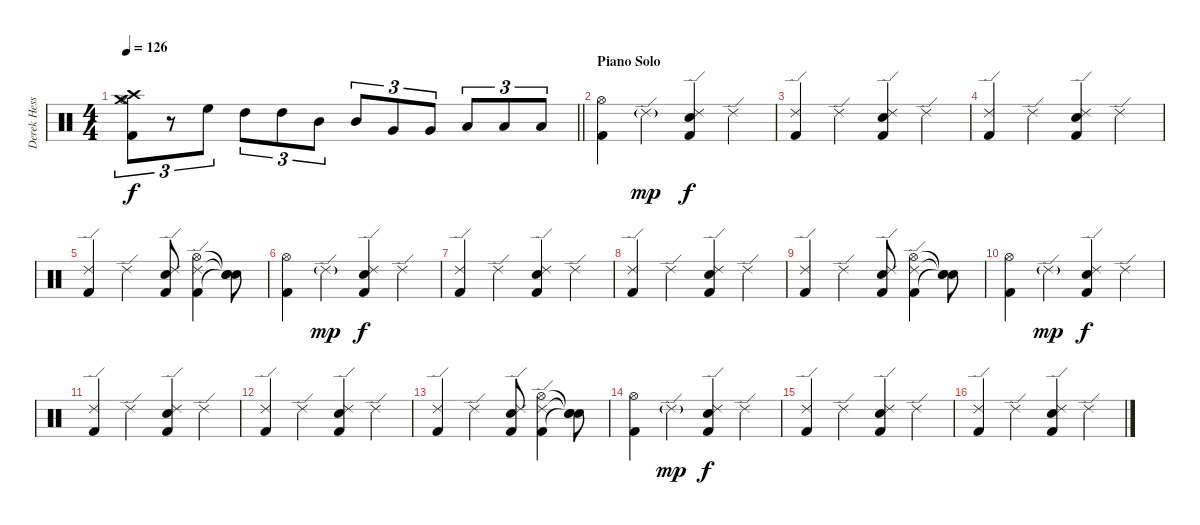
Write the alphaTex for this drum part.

\track ("Derek Hess (Drums and Percussion)" "Derek Hess") {instrument percussion}
\staff {score}
\articulation defaults
\ts (4 4)
\tempo 126
\clef neutral
\barLineRight lightlight
\ks c
("Crash medium (hit)" "Crash high (hit)" "Hi-Hat (open)" "Kick (hit) 2").8{tu (3 2) dy f} r.8{tu (3 2)} "High Floor Tom (hit)".8{tu (3 2)} "High Tom (hit)".8{tu (3 2)} "High Tom (hit)".8{tu (3 2)} "Mid Tom (hit)".8{tu (3 2)} "Mid Tom (hit)".8{tu (3 2)} "Very Low Tom (hit)".8{tu (3 2)} "Very Low Tom (hit)".8{tu (3 2)} "Low Floor Tom (hit)".8{tu (3 2)} "Low Floor Tom (hit)".8{tu (3 2)} "Low Floor Tom (hit)".8{tu (3 2)} |
\section ("" "Piano Solo")
("Hi-Hat (open)" "Kick (hit) 2").4 "Ride (edge) 2"{g}.4{dy mp} ("Ride (edge) 2" "Electric Snare (hit)" "Kick (hit) 2").4{dy f} "Ride (edge) 2".4 |
("Ride (edge) 2" "Kick (hit) 2").4 "Ride (edge) 2".4 ("Ride (edge) 2" "Electric Snare (hit)" "Kick (hit) 2").4 "Ride (edge) 2".4 |
("Ride (edge) 2" "Kick (hit) 2").4 "Ride (edge) 2".4 ("Ride (edge) 2" "Electric Snare (hit)" "Kick (hit) 2").4 "Ride (edge) 2".4 |
("Ride (edge) 2" "Kick (hit) 2").4 "Ride (edge) 2".4 ("Ride (edge) 2" "Electric Snare (hit)" "Kick (hit) 2").8 ("Ride (edge) 2" "Hi-Hat (open)" "Kick (hit) 2").4 ("Snare (hit)"{t} "Snare (hit)"{t} "Snare (hit)"{t}).8 |
("Hi-Hat (open)" "Kick (hit) 2").4 "Ride (edge) 2"{g}.4{dy mp} ("Ride (edge) 2" "Electric Snare (hit)" "Kick (hit) 2").4{dy f} "Ride (edge) 2".4 |
("Ride (edge) 2" "Kick (hit) 2").4 "Ride (edge) 2".4 ("Ride (edge) 2" "Electric Snare (hit)" "Kick (hit) 2").4 "Ride (edge) 2".4 |
("Ride (edge) 2" "Kick (hit) 2").4 "Ride (edge) 2".4 ("Ride (edge) 2" "Electric Snare (hit)" "Kick (hit) 2").4 "Ride (edge) 2".4 |
("Ride (edge) 2" "Kick (hit) 2").4 "Ride (edge) 2".4 ("Ride (edge) 2" "Electric Snare (hit)" "Kick (hit) 2").8 ("Ride (edge) 2" "Hi-Hat (open)" "Kick (hit) 2").4 ("Snare (hit)"{t} "Snare (hit)"{t} "Snare (hit)"{t}).8 |
("Hi-Hat (open)" "Kick (hit) 2").4 "Ride (edge) 2"{g}.4{dy mp} ("Ride (edge) 2" "Electric Snare (hit)" "Kick (hit) 2").4{dy f} "Ride (edge) 2".4 |
("Ride (edge) 2" "Kick (hit) 2").4 "Ride (edge) 2".4 ("Ride (edge) 2" "Electric Snare (hit)" "Kick (hit) 2").4 "Ride (edge) 2".4 |
("Ride (edge) 2" "Kick (hit) 2").4 "Ride (edge) 2".4 ("Ride (edge) 2" "Electric Snare (hit)" "Kick (hit) 2").4 "Ride (edge) 2".4 |
("Ride (edge) 2" "Kick (hit) 2").4 "Ride (edge) 2".4 ("Ride (edge) 2" "Electric Snare (hit)" "Kick (hit) 2").8 ("Ride (edge) 2" "Hi-Hat (open)" "Kick (hit) 2").4 ("Snare (hit)"{t} "Snare (hit)"{t} "Snare (hit)"{t}).8 |
("Hi-Hat (open)" "Kick (hit) 2").4 "Ride (edge) 2"{g}.4{dy mp} ("Ride (edge) 2" "Electric Snare (hit)" "Kick (hit) 2").4{dy f} "Ride (edge) 2".4 |
("Ride (edge) 2" "Kick (hit) 2").4 "Ride (edge) 2".4 ("Ride (edge) 2" "Electric Snare (hit)" "Kick (hit) 2").4 "Ride (edge) 2".4 |
("Ride (edge) 2" "Kick (hit) 2").4 "Ride (edge) 2".4 ("Ride (edge) 2" "Electric Snare (hit)" "Kick (hit) 2").4 "Ride (edge) 2".4
